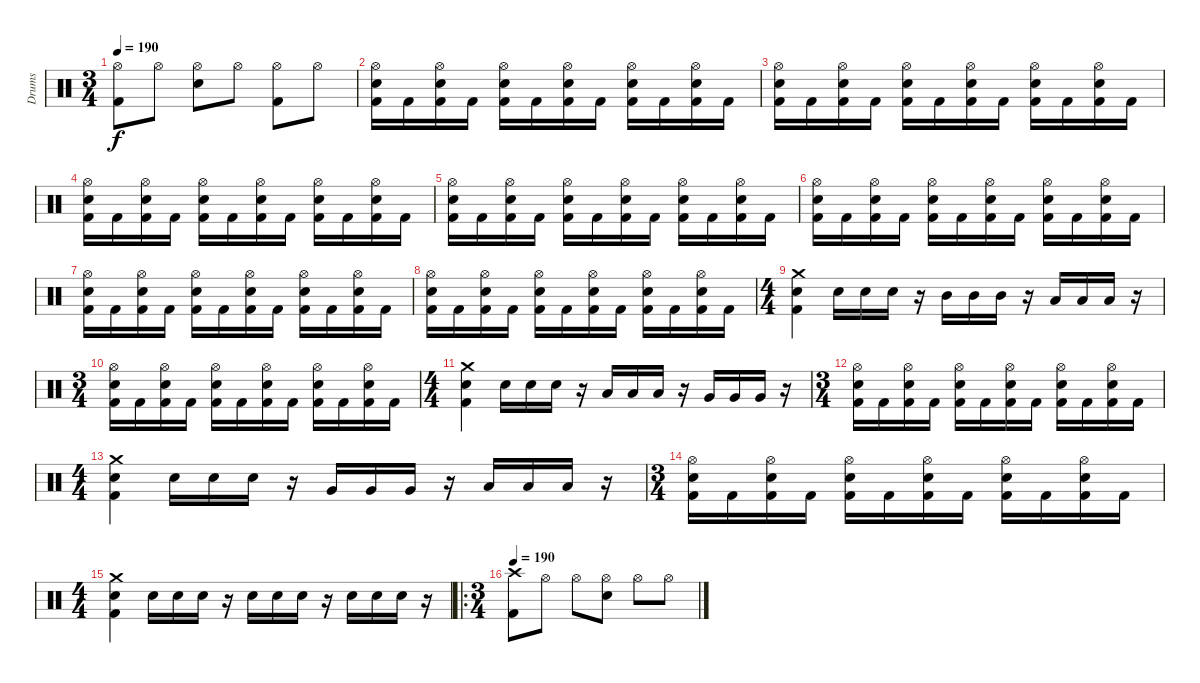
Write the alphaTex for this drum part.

\track ("Drums" "Drums") {instrument percussion}
\staff {score}
\articulation defaults
\ts (3 4)
\tempo 190
\clef neutral
\ks c
("Hi-Hat (open)" "Kick (hit) 2").8{dy f} "Hi-Hat (open)".8 ("Hi-Hat (open)" "Electric Snare (hit)").8 "Hi-Hat (open)".8 ("Hi-Hat (open)" "Kick (hit) 2").8 "Hi-Hat (open)".8 |
("Hi-Hat (open)" "Electric Snare (hit)" "Kick (hit) 2").16 "Kick (hit) 2".16 ("Hi-Hat (open)" "Electric Snare (hit)" "Kick (hit) 2").16 "Kick (hit) 2".16 ("Hi-Hat (open)" "Electric Snare (hit)" "Kick (hit) 2").16 "Kick (hit) 2".16 ("Hi-Hat (open)" "Electric Snare (hit)" "Kick (hit) 2").16 "Kick (hit) 2".16 ("Hi-Hat (open)" "Electric Snare (hit)" "Kick (hit) 2").16 "Kick (hit) 2".16 ("Hi-Hat (open)" "Electric Snare (hit)" "Kick (hit) 2").16 "Kick (hit) 2".16 |
("Hi-Hat (open)" "Electric Snare (hit)" "Kick (hit) 2").16 "Kick (hit) 2".16 ("Hi-Hat (open)" "Electric Snare (hit)" "Kick (hit) 2").16 "Kick (hit) 2".16 ("Hi-Hat (open)" "Electric Snare (hit)" "Kick (hit) 2").16 "Kick (hit) 2".16 ("Hi-Hat (open)" "Electric Snare (hit)" "Kick (hit) 2").16 "Kick (hit) 2".16 ("Hi-Hat (open)" "Electric Snare (hit)" "Kick (hit) 2").16 "Kick (hit) 2".16 ("Hi-Hat (open)" "Electric Snare (hit)" "Kick (hit) 2").16 "Kick (hit) 2".16 |
("Hi-Hat (open)" "Electric Snare (hit)" "Kick (hit) 2").16 "Kick (hit) 2".16 ("Hi-Hat (open)" "Electric Snare (hit)" "Kick (hit) 2").16 "Kick (hit) 2".16 ("Hi-Hat (open)" "Electric Snare (hit)" "Kick (hit) 2").16 "Kick (hit) 2".16 ("Hi-Hat (open)" "Electric Snare (hit)" "Kick (hit) 2").16 "Kick (hit) 2".16 ("Hi-Hat (open)" "Electric Snare (hit)" "Kick (hit) 2").16 "Kick (hit) 2".16 ("Hi-Hat (open)" "Electric Snare (hit)" "Kick (hit) 2").16 "Kick (hit) 2".16 |
("Hi-Hat (open)" "Electric Snare (hit)" "Kick (hit) 2").16 "Kick (hit) 2".16 ("Hi-Hat (open)" "Electric Snare (hit)" "Kick (hit) 2").16 "Kick (hit) 2".16 ("Hi-Hat (open)" "Electric Snare (hit)" "Kick (hit) 2").16 "Kick (hit) 2".16 ("Hi-Hat (open)" "Electric Snare (hit)" "Kick (hit) 2").16 "Kick (hit) 2".16 ("Hi-Hat (open)" "Electric Snare (hit)" "Kick (hit) 2").16 "Kick (hit) 2".16 ("Hi-Hat (open)" "Electric Snare (hit)" "Kick (hit) 2").16 "Kick (hit) 2".16 |
("Hi-Hat (open)" "Electric Snare (hit)" "Kick (hit) 2").16 "Kick (hit) 2".16 ("Hi-Hat (open)" "Electric Snare (hit)" "Kick (hit) 2").16 "Kick (hit) 2".16 ("Hi-Hat (open)" "Electric Snare (hit)" "Kick (hit) 2").16 "Kick (hit) 2".16 ("Hi-Hat (open)" "Electric Snare (hit)" "Kick (hit) 2").16 "Kick (hit) 2".16 ("Hi-Hat (open)" "Electric Snare (hit)" "Kick (hit) 2").16 "Kick (hit) 2".16 ("Hi-Hat (open)" "Electric Snare (hit)" "Kick (hit) 2").16 "Kick (hit) 2".16 |
("Hi-Hat (open)" "Electric Snare (hit)" "Kick (hit) 2").16 "Kick (hit) 2".16 ("Hi-Hat (open)" "Electric Snare (hit)" "Kick (hit) 2").16 "Kick (hit) 2".16 ("Hi-Hat (open)" "Electric Snare (hit)" "Kick (hit) 2").16 "Kick (hit) 2".16 ("Hi-Hat (open)" "Electric Snare (hit)" "Kick (hit) 2").16 "Kick (hit) 2".16 ("Hi-Hat (open)" "Electric Snare (hit)" "Kick (hit) 2").16 "Kick (hit) 2".16 ("Hi-Hat (open)" "Electric Snare (hit)" "Kick (hit) 2").16 "Kick (hit) 2".16 |
("Hi-Hat (open)" "Electric Snare (hit)" "Kick (hit) 2").16 "Kick (hit) 2".16 ("Hi-Hat (open)" "Electric Snare (hit)" "Kick (hit) 2").16 "Kick (hit) 2".16 ("Hi-Hat (open)" "Electric Snare (hit)" "Kick (hit) 2").16 "Kick (hit) 2".16 ("Hi-Hat (open)" "Electric Snare (hit)" "Kick (hit) 2").16 "Kick (hit) 2".16 ("Hi-Hat (open)" "Electric Snare (hit)" "Kick (hit) 2").16 "Kick (hit) 2".16 ("Hi-Hat (open)" "Electric Snare (hit)" "Kick (hit) 2").16 "Kick (hit) 2".16 |
\ts (4 4)
("Crash medium (hit)" "Electric Snare (hit)" "Kick (hit) 2").4 "Electric Snare (hit)".16 "Electric Snare (hit)".16 "Electric Snare (hit)".16 r.16 "Mid Tom (hit)".16 "Mid Tom (hit)".16 "Mid Tom (hit)".16 r.16 "Low Tom (hit)".16 "Low Tom (hit)".16 "Low Tom (hit)".16 r.16 |
\ts (3 4)
("Hi-Hat (open)" "Electric Snare (hit)" "Kick (hit) 2").16 "Kick (hit) 2".16 ("Hi-Hat (open)" "Electric Snare (hit)" "Kick (hit) 2").16 "Kick (hit) 2".16 ("Hi-Hat (open)" "Electric Snare (hit)" "Kick (hit) 2").16 "Kick (hit) 2".16 ("Hi-Hat (open)" "Electric Snare (hit)" "Kick (hit) 2").16 "Kick (hit) 2".16 ("Hi-Hat (open)" "Electric Snare (hit)" "Kick (hit) 2").16 "Kick (hit) 2".16 ("Hi-Hat (open)" "Electric Snare (hit)" "Kick (hit) 2").16 "Kick (hit) 2".16 |
\ts (4 4)
("Crash medium (hit)" "Electric Snare (hit)" "Kick (hit) 2").4 "Electric Snare (hit)".16 "Electric Snare (hit)".16 "Electric Snare (hit)".16 r.16 "Low Tom (hit)".16 "Low Tom (hit)".16 "Low Tom (hit)".16 r.16 "Very Low Tom (hit)".16 "Very Low Tom (hit)".16 "Very Low Tom (hit)".16 r.16 |
\ts (3 4)
("Hi-Hat (open)" "Electric Snare (hit)" "Kick (hit) 2").16 "Kick (hit) 2".16 ("Hi-Hat (open)" "Electric Snare (hit)" "Kick (hit) 2").16 "Kick (hit) 2".16 ("Hi-Hat (open)" "Electric Snare (hit)" "Kick (hit) 2").16 "Kick (hit) 2".16 ("Hi-Hat (open)" "Electric Snare (hit)" "Kick (hit) 2").16 "Kick (hit) 2".16 ("Hi-Hat (open)" "Electric Snare (hit)" "Kick (hit) 2").16 "Kick (hit) 2".16 ("Hi-Hat (open)" "Electric Snare (hit)" "Kick (hit) 2").16 "Kick (hit) 2".16 |
\ts (4 4)
("Crash medium (hit)" "Electric Snare (hit)" "Kick (hit) 2").4 "Electric Snare (hit)".16 "Electric Snare (hit)".16 "Electric Snare (hit)".16 r.16 "Very Low Tom (hit)".16 "Very Low Tom (hit)".16 "Very Low Tom (hit)".16 r.16 "Low Floor Tom (hit)".16 "Low Floor Tom (hit)".16 "Low Floor Tom (hit)".16 r.16 |
\ts (3 4)
("Hi-Hat (open)" "Electric Snare (hit)" "Kick (hit) 2").16 "Kick (hit) 2".16 ("Hi-Hat (open)" "Electric Snare (hit)" "Kick (hit) 2").16 "Kick (hit) 2".16 ("Hi-Hat (open)" "Electric Snare (hit)" "Kick (hit) 2").16 "Kick (hit) 2".16 ("Hi-Hat (open)" "Electric Snare (hit)" "Kick (hit) 2").16 "Kick (hit) 2".16 ("Hi-Hat (open)" "Electric Snare (hit)" "Kick (hit) 2").16 "Kick (hit) 2".16 ("Hi-Hat (open)" "Electric Snare (hit)" "Kick (hit) 2").16 "Kick (hit) 2".16 |
\ts (4 4)
("Crash medium (hit)" "Electric Snare (hit)" "Kick (hit) 2").4 "Electric Snare (hit)".16 "Electric Snare (hit)".16 "Electric Snare (hit)".16 r.16 "Electric Snare (hit)".16 "Electric Snare (hit)".16 "Electric Snare (hit)".16 r.16 "Electric Snare (hit)".16 "Electric Snare (hit)".16 "Electric Snare (hit)".16 r.16 |
\ro
\ts (3 4)
\tempo 190
("Crash high (hit)" "Kick (hit) 2").8 "Hi-Hat (open)".8 "Hi-Hat (open)".8 ("Hi-Hat (open)" "Electric Snare (hit)").8 "Hi-Hat (open)".8 "Hi-Hat (open)".8
